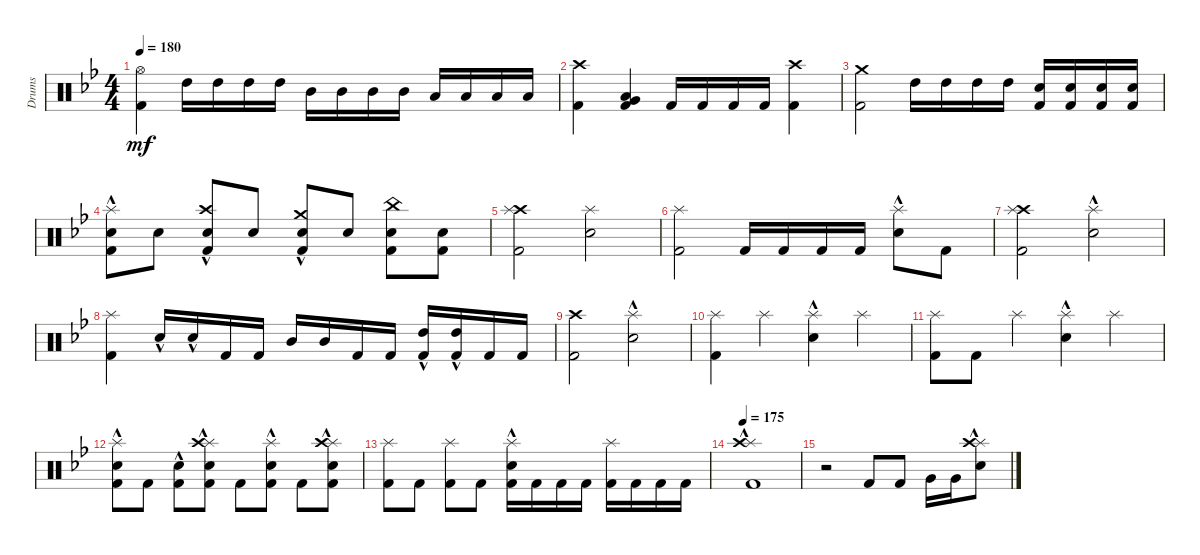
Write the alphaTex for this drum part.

\defaultSystemsLayout 4
\bracketExtendMode groupsimilarinstruments
\otherSystemsTrackNameOrientation horizontal
\track ("Drumkit" "Drums") {instrument percussion}
\staff {score}
\articulation defaults
\ts (4 4)
\tempo 180
\clef neutral
\scale
0.333333
\ks bb
("Hi-Hat (open)"{acc forcenatural} "Kick (hit) 2"{acc forcenatural}).4{dy mf} "High Tom (hit)"{acc forcenatural}.16 "High Tom (hit)"{acc forcenatural}.16 "High Tom (hit)"{acc forcenatural}.16 "High Tom (hit)"{acc forcenatural}.16 "Mid Tom (hit)"{acc forcenatural}.16 "Mid Tom (hit)"{acc forcenatural}.16 "Mid Tom (hit)"{acc forcenatural}.16 "Mid Tom (hit)"{acc forcenatural}.16 "Low Tom (hit)"{acc forcenatural}.16 "Low Tom (hit)"{acc forcenatural}.16 "Low Tom (hit)"{acc forcenatural}.16 "Low Tom (hit)"{acc forcenatural}.16 |
\scale
0.333333 ("Crash high (hit)"{acc forcenatural} "Kick (hit) 2"{acc forcenatural}).4 ("Kick (hit) 2"{acc forcenatural} "Very Low Tom (hit)"{acc forcenatural} "Low Tom (hit)"{acc forcenatural}).4 "Kick (hit) 2"{acc forcenatural}.16 "Kick (hit) 2"{acc forcenatural}.16 "Kick (hit) 2"{acc forcenatural}.16 "Kick (hit) 2"{acc forcenatural}.16 ("Crash high (hit)"{acc forcenatural} "Kick (hit) 2"{acc forcenatural}).4 |
\scale
0.333333 ("Kick (hit) 2"{acc forcenatural} "Crash medium (hit)"{acc forcenatural}).2 "High Tom (hit)"{acc forcenatural}.16 "High Tom (hit)"{acc forcenatural}.16 "High Tom (hit)"{acc forcenatural}.16 "High Tom (hit)"{acc forcenatural}.16 ("Snare (hit) 2"{acc forcenatural} "Kick (hit) 2"{acc forcenatural}).16 ("Snare (hit) 2"{acc forcenatural} "Kick (hit) 2"{acc forcenatural}).16 ("Snare (hit) 2"{acc forcenatural} "Kick (hit) 2"{acc forcenatural}).16 ("Snare (hit) 2"{acc forcenatural} "Kick (hit) 2"{acc forcenatural}).16 |
\scale
0.333333 ("Snare (hit) 2"{acc forcenatural} "Splash (hit)"{hac acc forcenatural} "Kick (hit) 2"{acc forcenatural}).8 "Snare (hit) 2"{acc forcenatural}.8 ("Snare (hit) 2"{acc forcenatural} "Crash high (hit)"{hac acc forcenatural} "Kick (hit) 2"{acc forcenatural}).8 "Snare (hit) 2"{acc forcenatural}.8 ("Snare (hit) 2"{acc forcenatural} "Crash medium (hit)"{hac acc forcenatural} "Kick (hit) 2"{acc forcenatural}).8 "Snare (hit) 2"{acc forcenatural}.8 ("Snare (hit) 2"{acc forcenatural} "China (hit)"{acc forcenatural} "Kick (hit) 2"{acc forcenatural}).8 ("Snare (hit) 2"{acc forcenatural} "Kick (hit) 2"{acc forcenatural}).8 |
\scale
0.333333 ("Crash high (hit)"{acc forcenatural} "Kick (hit) 2"{acc forcenatural} "Splash (hit)"{acc forcenatural}).2 ("Snare (hit) 2"{acc forcenatural} "Splash (hit)"{acc forcenatural}).2 |
\scale
0.333333 ("Splash (hit)"{acc forcenatural} "Kick (hit) 2"{acc forcenatural}).2 "Kick (hit) 2"{acc forcenatural}.16 "Kick (hit) 2"{acc forcenatural}.16 "Kick (hit) 2"{acc forcenatural}.16 "Kick (hit) 2"{acc forcenatural}.16 ("Snare (hit) 2"{hac acc forcenatural} "Splash (hit)"{acc forcenatural}).8 "Kick (hit) 2"{acc forcenatural}.8 |
\scale
0.333333 ("Crash high (hit)"{acc forcenatural} "Kick (hit) 2"{acc forcenatural} "Splash (hit)"{acc forcenatural}).2 ("Snare (hit) 2"{hac acc forcenatural} "Splash (hit)"{acc forcenatural}).2 |
\scale
0.333333 ("Splash (hit)"{acc forcenatural} "Kick (hit) 2"{acc forcenatural}).4 "Snare (hit) 2"{hac acc forcenatural}.16 "Snare (hit) 2"{hac acc forcenatural}.16 "Kick (hit) 2"{acc forcenatural}.16 "Kick (hit) 2"{acc forcenatural}.16 "Mid Tom (hit)"{acc forcenatural}.16 "Mid Tom (hit)"{acc forcenatural}.16 "Kick (hit) 2"{acc forcenatural}.16 "Kick (hit) 2"{acc forcenatural}.16 ("High Tom (hit)"{hac acc forcenatural} "Kick (hit) 2"{acc forcenatural}).16 ("High Tom (hit)"{hac acc forcenatural} "Kick (hit) 2"{acc forcenatural}).16 "Kick (hit) 2"{acc forcenatural}.16 "Kick (hit) 2"{acc forcenatural}.16 |
\scale
0.333333 ("Crash high (hit)"{acc forcenatural} "Kick (hit) 2"{acc forcenatural}).2 ("Splash (hit)"{acc forcenatural} "Snare (hit) 2"{hac acc forcenatural}).2 |
\scale
0.333333 ("Kick (hit) 2"{acc forcenatural} "Splash (hit)"{acc forcenatural}).4 "Splash (hit)"{acc forcenatural}.4 ("Snare (hit) 2"{hac acc forcenatural} "Splash (hit)"{acc forcenatural}).4 "Splash (hit)"{acc forcenatural}.4 |
\scale
0.333333 ("Kick (hit) 2"{acc forcenatural} "Splash (hit)"{acc forcenatural}).8 "Kick (hit) 2"{acc forcenatural}.8 "Splash (hit)"{acc forcenatural}.4 ("Snare (hit) 2"{hac acc forcenatural} "Splash (hit)"{acc forcenatural}).4 "Splash (hit)"{acc forcenatural}.4 |
\scale
0.333333 ("Kick (hit) 2"{acc forcenatural} "Snare (hit) 2"{hac acc forcenatural} "Splash (hit)"{acc forcenatural}).8 "Kick (hit) 2"{acc forcenatural}.8 ("Kick (hit) 2"{acc forcenatural} "Snare (hit) 2"{hac acc forcenatural}).8 ("Kick (hit) 2"{acc forcenatural} "Snare (hit) 2"{hac acc forcenatural} "Splash (hit)"{acc forcenatural} "Crash high (hit)"{acc forcenatural}).8 "Kick (hit) 2"{acc forcenatural}.8 ("Kick (hit) 2"{acc forcenatural} "Snare (hit) 2"{hac acc forcenatural} "Splash (hit)"{acc forcenatural}).8 "Kick (hit) 2"{acc forcenatural}.8 ("Kick (hit) 2"{acc forcenatural} "Snare (hit) 2"{hac acc forcenatural} "Splash (hit)"{acc forcenatural} "Crash high (hit)"{acc forcenatural}).8 |
\scale
0.333333 ("Kick (hit) 2"{acc forcenatural} "Splash (hit)"{acc forcenatural}).8 "Kick (hit) 2"{acc forcenatural}.8 ("Kick (hit) 2"{acc forcenatural} "Splash (hit)"{acc forcenatural}).8 "Kick (hit) 2"{acc forcenatural}.8 ("Kick (hit) 2"{acc forcenatural} "Splash (hit)"{acc forcenatural} "Snare (hit) 2"{hac acc forcenatural}).16 "Kick (hit) 2"{acc forcenatural}.16 "Kick (hit) 2"{acc forcenatural}.16 "Kick (hit) 2"{acc forcenatural}.16 ("Kick (hit) 2"{acc forcenatural} "Splash (hit)"{acc forcenatural}).16 "Kick (hit) 2"{acc forcenatural}.16 "Kick (hit) 2"{acc forcenatural}.16 "Kick (hit) 2"{acc forcenatural}.16 |
\tempo 175
\scale
0.333333 ("Splash (hit)"{hac acc forcenatural} "Crash high (hit)"{acc forcenatural} "Kick (hit) 2"{hac acc forcenatural}).1 |
\scale
0.333333 r.2 "Kick (hit) 2"{acc forcenatural}.8 "Kick (hit) 2"{acc forcenatural}.8 "Very Low Tom (hit)"{acc forcenatural}.16 "Very Low Tom (hit)"{acc forcenatural}.16 ("Snare (hit) 2"{hac acc forcenatural} "Splash (hit)"{acc forcenatural} "Crash high (hit)"{acc forcenatural}).8 |
\scale
0.333333
